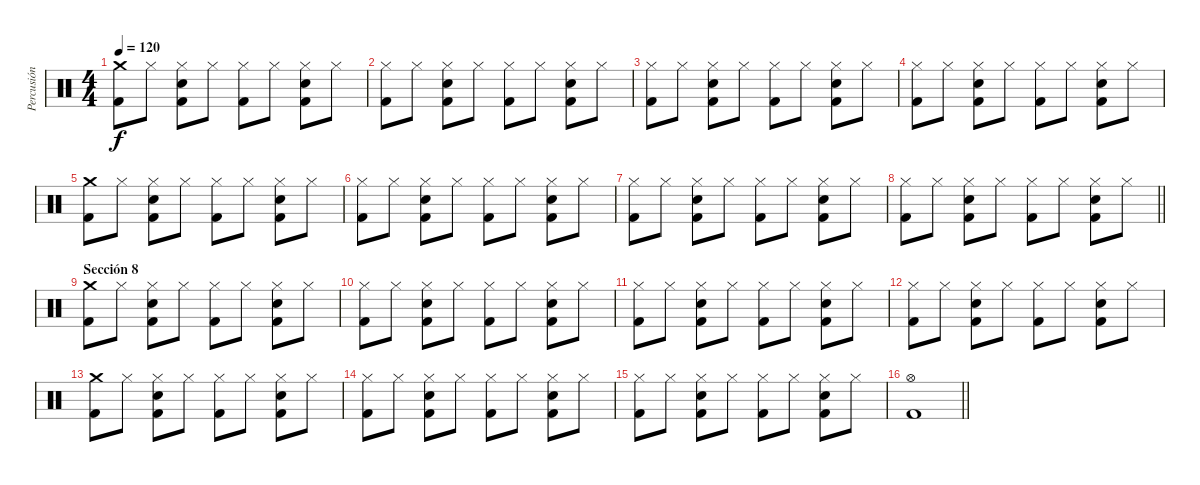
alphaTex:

\track ("Percusión" "Percusión") {instrument percussion}
\staff {score}
\articulation defaults
\ts (4 4)
\tempo 120
\clef neutral
\ks c
("Kick (hit) 2" "Crash medium (hit)").8{dy f} "Hi-Hat (closed)".8 ("Kick (hit) 2" "Hi-Hat (closed)" "Electric Snare (hit)").8 "Hi-Hat (closed)".8 ("Kick (hit) 2" "Hi-Hat (closed)").8 "Hi-Hat (closed)".8 ("Kick (hit) 2" "Hi-Hat (closed)" "Electric Snare (hit)").8 "Hi-Hat (closed)".8 |
("Kick (hit) 2" "Hi-Hat (closed)").8 "Hi-Hat (closed)".8 ("Kick (hit) 2" "Hi-Hat (closed)" "Electric Snare (hit)").8 "Hi-Hat (closed)".8 ("Kick (hit) 2" "Hi-Hat (closed)").8 "Hi-Hat (closed)".8 ("Kick (hit) 2" "Hi-Hat (closed)" "Electric Snare (hit)").8 "Hi-Hat (closed)".8 |
("Kick (hit) 2" "Hi-Hat (closed)").8 "Hi-Hat (closed)".8 ("Kick (hit) 2" "Hi-Hat (closed)" "Electric Snare (hit)").8 "Hi-Hat (closed)".8 ("Kick (hit) 2" "Hi-Hat (closed)").8 "Hi-Hat (closed)".8 ("Kick (hit) 2" "Hi-Hat (closed)" "Electric Snare (hit)").8 "Hi-Hat (closed)".8 |
("Kick (hit) 2" "Hi-Hat (closed)").8 "Hi-Hat (closed)".8 ("Kick (hit) 2" "Hi-Hat (closed)" "Electric Snare (hit)").8 "Hi-Hat (closed)".8 ("Kick (hit) 2" "Hi-Hat (closed)").8 "Hi-Hat (closed)".8 ("Kick (hit) 2" "Hi-Hat (closed)" "Electric Snare (hit)").8 "Hi-Hat (closed)".8 |
("Kick (hit) 2" "Crash medium (hit)").8 "Hi-Hat (closed)".8 ("Kick (hit) 2" "Hi-Hat (closed)" "Electric Snare (hit)").8 "Hi-Hat (closed)".8 ("Kick (hit) 2" "Hi-Hat (closed)").8 "Hi-Hat (closed)".8 ("Kick (hit) 2" "Hi-Hat (closed)" "Electric Snare (hit)").8 "Hi-Hat (closed)".8 |
("Kick (hit) 2" "Hi-Hat (closed)").8 "Hi-Hat (closed)".8 ("Kick (hit) 2" "Hi-Hat (closed)" "Electric Snare (hit)").8 "Hi-Hat (closed)".8 ("Kick (hit) 2" "Hi-Hat (closed)").8 "Hi-Hat (closed)".8 ("Kick (hit) 2" "Hi-Hat (closed)" "Electric Snare (hit)").8 "Hi-Hat (closed)".8 |
("Kick (hit) 2" "Hi-Hat (closed)").8 "Hi-Hat (closed)".8 ("Kick (hit) 2" "Hi-Hat (closed)" "Electric Snare (hit)").8 "Hi-Hat (closed)".8 ("Kick (hit) 2" "Hi-Hat (closed)").8 "Hi-Hat (closed)".8 ("Kick (hit) 2" "Hi-Hat (closed)" "Electric Snare (hit)").8 "Hi-Hat (closed)".8 |
\barLineRight lightlight
("Kick (hit) 2" "Hi-Hat (closed)").8 "Hi-Hat (closed)".8 ("Kick (hit) 2" "Hi-Hat (closed)" "Electric Snare (hit)").8 "Hi-Hat (closed)".8 ("Kick (hit) 2" "Hi-Hat (closed)").8 "Hi-Hat (closed)".8 ("Kick (hit) 2" "Hi-Hat (closed)" "Electric Snare (hit)").8 "Hi-Hat (closed)".8 |
\section ("" "Sección 8")
("Kick (hit) 2" "Crash medium (hit)").8 "Hi-Hat (closed)".8 ("Kick (hit) 2" "Hi-Hat (closed)" "Electric Snare (hit)").8 "Hi-Hat (closed)".8 ("Kick (hit) 2" "Hi-Hat (closed)").8 "Hi-Hat (closed)".8 ("Kick (hit) 2" "Hi-Hat (closed)" "Electric Snare (hit)").8 "Hi-Hat (closed)".8 |
("Kick (hit) 2" "Hi-Hat (closed)").8 "Hi-Hat (closed)".8 ("Kick (hit) 2" "Hi-Hat (closed)" "Electric Snare (hit)").8 "Hi-Hat (closed)".8 ("Kick (hit) 2" "Hi-Hat (closed)").8 "Hi-Hat (closed)".8 ("Kick (hit) 2" "Hi-Hat (closed)" "Electric Snare (hit)").8 "Hi-Hat (closed)".8 |
("Kick (hit) 2" "Hi-Hat (closed)").8 "Hi-Hat (closed)".8 ("Kick (hit) 2" "Hi-Hat (closed)" "Electric Snare (hit)").8 "Hi-Hat (closed)".8 ("Kick (hit) 2" "Hi-Hat (closed)").8 "Hi-Hat (closed)".8 ("Kick (hit) 2" "Hi-Hat (closed)" "Electric Snare (hit)").8 "Hi-Hat (closed)".8 |
("Kick (hit) 2" "Hi-Hat (closed)").8 "Hi-Hat (closed)".8 ("Kick (hit) 2" "Hi-Hat (closed)" "Electric Snare (hit)").8 "Hi-Hat (closed)".8 ("Kick (hit) 2" "Hi-Hat (closed)").8 "Hi-Hat (closed)".8 ("Kick (hit) 2" "Hi-Hat (closed)" "Electric Snare (hit)").8 "Hi-Hat (closed)".8 |
("Kick (hit) 2" "Crash medium (hit)").8 "Hi-Hat (closed)".8 ("Kick (hit) 2" "Hi-Hat (closed)" "Electric Snare (hit)").8 "Hi-Hat (closed)".8 ("Kick (hit) 2" "Hi-Hat (closed)").8 "Hi-Hat (closed)".8 ("Kick (hit) 2" "Hi-Hat (closed)" "Electric Snare (hit)").8 "Hi-Hat (closed)".8 |
("Kick (hit) 2" "Hi-Hat (closed)").8 "Hi-Hat (closed)".8 ("Kick (hit) 2" "Hi-Hat (closed)" "Electric Snare (hit)").8 "Hi-Hat (closed)".8 ("Kick (hit) 2" "Hi-Hat (closed)").8 "Hi-Hat (closed)".8 ("Kick (hit) 2" "Hi-Hat (closed)" "Electric Snare (hit)").8 "Hi-Hat (closed)".8 |
("Kick (hit) 2" "Hi-Hat (closed)").8 "Hi-Hat (closed)".8 ("Kick (hit) 2" "Hi-Hat (closed)" "Electric Snare (hit)").8 "Hi-Hat (closed)".8 ("Kick (hit) 2" "Hi-Hat (closed)").8 "Hi-Hat (closed)".8 ("Kick (hit) 2" "Hi-Hat (closed)" "Electric Snare (hit)").8 "Hi-Hat (closed)".8 |
\barLineRight lightlight
("Kick (hit) 2" "Hi-Hat (open)").1
